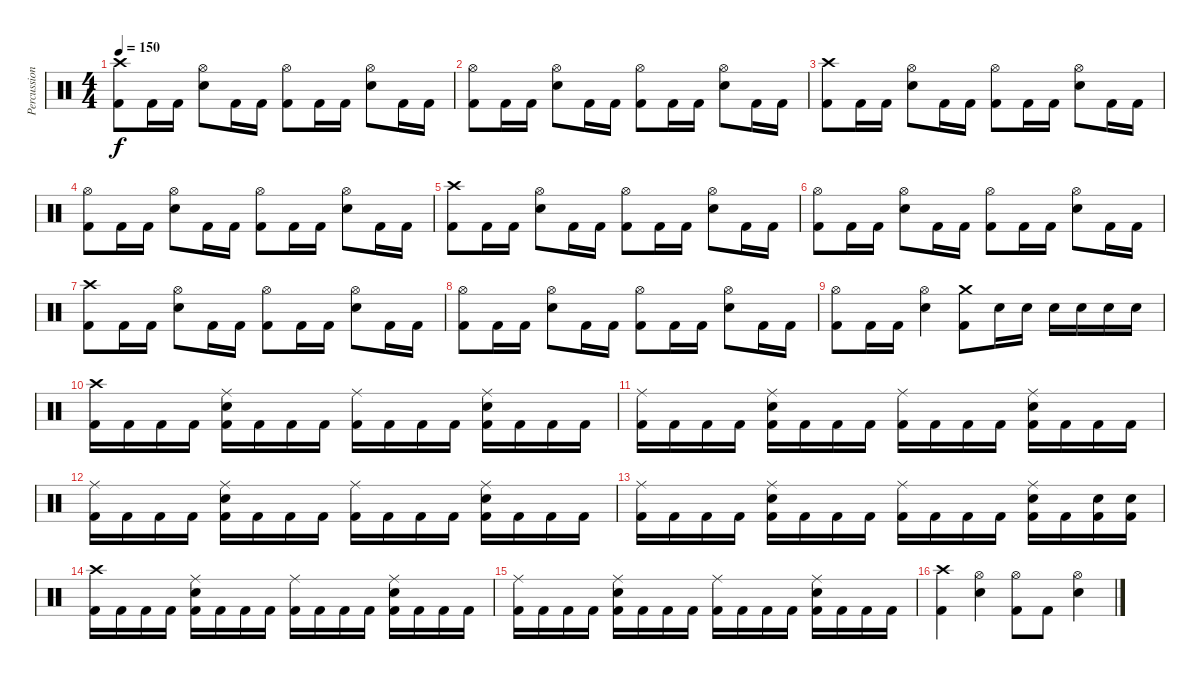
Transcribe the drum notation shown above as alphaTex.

\track ("Percussion" "Percussion") {instrument percussion}
\staff {score}
\articulation defaults
\ts (4 4)
\tempo 150
\clef neutral
\ks c
("Kick (hit) 2" "Crash high (hit)").8{dy f} "Kick (hit) 2".16 "Kick (hit) 2".16 ("Snare (hit) 2" "Hi-Hat (open)").8 "Kick (hit) 2".16 "Kick (hit) 2".16 ("Kick (hit) 2" "Hi-Hat (open)").8 "Kick (hit) 2".16 "Kick (hit) 2".16 ("Snare (hit) 2" "Hi-Hat (open)").8 "Kick (hit) 2".16 "Kick (hit) 2".16 |
("Kick (hit) 2" "Hi-Hat (open)").8 "Kick (hit) 2".16 "Kick (hit) 2".16 ("Snare (hit) 2" "Hi-Hat (open)").8 "Kick (hit) 2".16 "Kick (hit) 2".16 ("Kick (hit) 2" "Hi-Hat (open)").8 "Kick (hit) 2".16 "Kick (hit) 2".16 ("Snare (hit) 2" "Hi-Hat (open)").8 "Kick (hit) 2".16 "Kick (hit) 2".16 |
("Kick (hit) 2" "Crash high (hit)").8 "Kick (hit) 2".16 "Kick (hit) 2".16 ("Snare (hit) 2" "Hi-Hat (open)").8 "Kick (hit) 2".16 "Kick (hit) 2".16 ("Kick (hit) 2" "Hi-Hat (open)").8 "Kick (hit) 2".16 "Kick (hit) 2".16 ("Snare (hit) 2" "Hi-Hat (open)").8 "Kick (hit) 2".16 "Kick (hit) 2".16 |
("Kick (hit) 2" "Hi-Hat (open)").8 "Kick (hit) 2".16 "Kick (hit) 2".16 ("Snare (hit) 2" "Hi-Hat (open)").8 "Kick (hit) 2".16 "Kick (hit) 2".16 ("Kick (hit) 2" "Hi-Hat (open)").8 "Kick (hit) 2".16 "Kick (hit) 2".16 ("Snare (hit) 2" "Hi-Hat (open)").8 "Kick (hit) 2".16 "Kick (hit) 2".16 |
("Kick (hit) 2" "Crash high (hit)").8 "Kick (hit) 2".16 "Kick (hit) 2".16 ("Snare (hit) 2" "Hi-Hat (open)").8 "Kick (hit) 2".16 "Kick (hit) 2".16 ("Kick (hit) 2" "Hi-Hat (open)").8 "Kick (hit) 2".16 "Kick (hit) 2".16 ("Snare (hit) 2" "Hi-Hat (open)").8 "Kick (hit) 2".16 "Kick (hit) 2".16 |
("Kick (hit) 2" "Hi-Hat (open)").8 "Kick (hit) 2".16 "Kick (hit) 2".16 ("Snare (hit) 2" "Hi-Hat (open)").8 "Kick (hit) 2".16 "Kick (hit) 2".16 ("Kick (hit) 2" "Hi-Hat (open)").8 "Kick (hit) 2".16 "Kick (hit) 2".16 ("Snare (hit) 2" "Hi-Hat (open)").8 "Kick (hit) 2".16 "Kick (hit) 2".16 |
("Kick (hit) 2" "Crash high (hit)").8 "Kick (hit) 2".16 "Kick (hit) 2".16 ("Snare (hit) 2" "Hi-Hat (open)").8 "Kick (hit) 2".16 "Kick (hit) 2".16 ("Kick (hit) 2" "Hi-Hat (open)").8 "Kick (hit) 2".16 "Kick (hit) 2".16 ("Snare (hit) 2" "Hi-Hat (open)").8 "Kick (hit) 2".16 "Kick (hit) 2".16 |
("Kick (hit) 2" "Hi-Hat (open)").8 "Kick (hit) 2".16 "Kick (hit) 2".16 ("Snare (hit) 2" "Hi-Hat (open)").8 "Kick (hit) 2".16 "Kick (hit) 2".16 ("Kick (hit) 2" "Hi-Hat (open)").8 "Kick (hit) 2".16 "Kick (hit) 2".16 ("Snare (hit) 2" "Hi-Hat (open)").8 "Kick (hit) 2".16 "Kick (hit) 2".16 |
("Kick (hit) 2" "Hi-Hat (open)").8 "Kick (hit) 2".16 "Kick (hit) 2".16 ("Snare (hit) 2" "Hi-Hat (open)").4 ("Kick (hit) 2" "Crash medium (hit)").8 "Snare (hit) 2".16 "Snare (hit) 2".16 "Snare (hit) 2".16 "Snare (hit) 2".16 "Snare (hit) 2".16 "Snare (hit) 2".16 |
("Kick (hit) 2" "Crash high (hit)").16 "Kick (hit) 2".16 "Kick (hit) 2".16 "Kick (hit) 2".16 ("Kick (hit) 2" "Snare (hit) 2" "Ride (middle)").16 "Kick (hit) 2".16 "Kick (hit) 2".16 "Kick (hit) 2".16 ("Kick (hit) 2" "Ride (middle)").16 "Kick (hit) 2".16 "Kick (hit) 2".16 "Kick (hit) 2".16 ("Kick (hit) 2" "Snare (hit) 2" "Ride (middle)").16 "Kick (hit) 2".16 "Kick (hit) 2".16 "Kick (hit) 2".16 |
("Kick (hit) 2" "Ride (middle)").16 "Kick (hit) 2".16 "Kick (hit) 2".16 "Kick (hit) 2".16 ("Kick (hit) 2" "Snare (hit) 2" "Ride (middle)").16 "Kick (hit) 2".16 "Kick (hit) 2".16 "Kick (hit) 2".16 ("Kick (hit) 2" "Ride (middle)").16 "Kick (hit) 2".16 "Kick (hit) 2".16 "Kick (hit) 2".16 ("Kick (hit) 2" "Snare (hit) 2" "Ride (middle)").16 "Kick (hit) 2".16 "Kick (hit) 2".16 "Kick (hit) 2".16 |
("Kick (hit) 2" "Ride (middle)").16 "Kick (hit) 2".16 "Kick (hit) 2".16 "Kick (hit) 2".16 ("Kick (hit) 2" "Snare (hit) 2" "Ride (middle)").16 "Kick (hit) 2".16 "Kick (hit) 2".16 "Kick (hit) 2".16 ("Kick (hit) 2" "Ride (middle)").16 "Kick (hit) 2".16 "Kick (hit) 2".16 "Kick (hit) 2".16 ("Kick (hit) 2" "Snare (hit) 2" "Ride (middle)").16 "Kick (hit) 2".16 "Kick (hit) 2".16 "Kick (hit) 2".16 |
("Kick (hit) 2" "Ride (middle)").16 "Kick (hit) 2".16 "Kick (hit) 2".16 "Kick (hit) 2".16 ("Kick (hit) 2" "Snare (hit) 2" "Ride (middle)").16 "Kick (hit) 2".16 "Kick (hit) 2".16 "Kick (hit) 2".16 ("Kick (hit) 2" "Ride (middle)").16 "Kick (hit) 2".16 "Kick (hit) 2".16 "Kick (hit) 2".16 ("Kick (hit) 2" "Snare (hit) 2" "Ride (middle)").16 "Kick (hit) 2".16 ("Kick (hit) 2" "Snare (hit) 2").16 ("Kick (hit) 2" "Snare (hit) 2").16 |
("Kick (hit) 2" "Crash high (hit)").16 "Kick (hit) 2".16 "Kick (hit) 2".16 "Kick (hit) 2".16 ("Kick (hit) 2" "Snare (hit) 2" "Ride (middle)").16 "Kick (hit) 2".16 "Kick (hit) 2".16 "Kick (hit) 2".16 ("Kick (hit) 2" "Ride (middle)").16 "Kick (hit) 2".16 "Kick (hit) 2".16 "Kick (hit) 2".16 ("Kick (hit) 2" "Snare (hit) 2" "Ride (middle)").16 "Kick (hit) 2".16 "Kick (hit) 2".16 "Kick (hit) 2".16 |
("Kick (hit) 2" "Ride (middle)").16 "Kick (hit) 2".16 "Kick (hit) 2".16 "Kick (hit) 2".16 ("Kick (hit) 2" "Snare (hit) 2" "Ride (middle)").16 "Kick (hit) 2".16 "Kick (hit) 2".16 "Kick (hit) 2".16 ("Kick (hit) 2" "Ride (middle)").16 "Kick (hit) 2".16 "Kick (hit) 2".16 "Kick (hit) 2".16 ("Kick (hit) 2" "Snare (hit) 2" "Ride (middle)").16 "Kick (hit) 2".16 "Kick (hit) 2".16 "Kick (hit) 2".16 |
("Kick (hit) 2" "Crash high (hit)").4 ("Snare (hit) 2" "Hi-Hat (open)").4 ("Kick (hit) 2" "Hi-Hat (open)").8 "Kick (hit) 2".8 ("Snare (hit) 2" "Hi-Hat (open)").4
